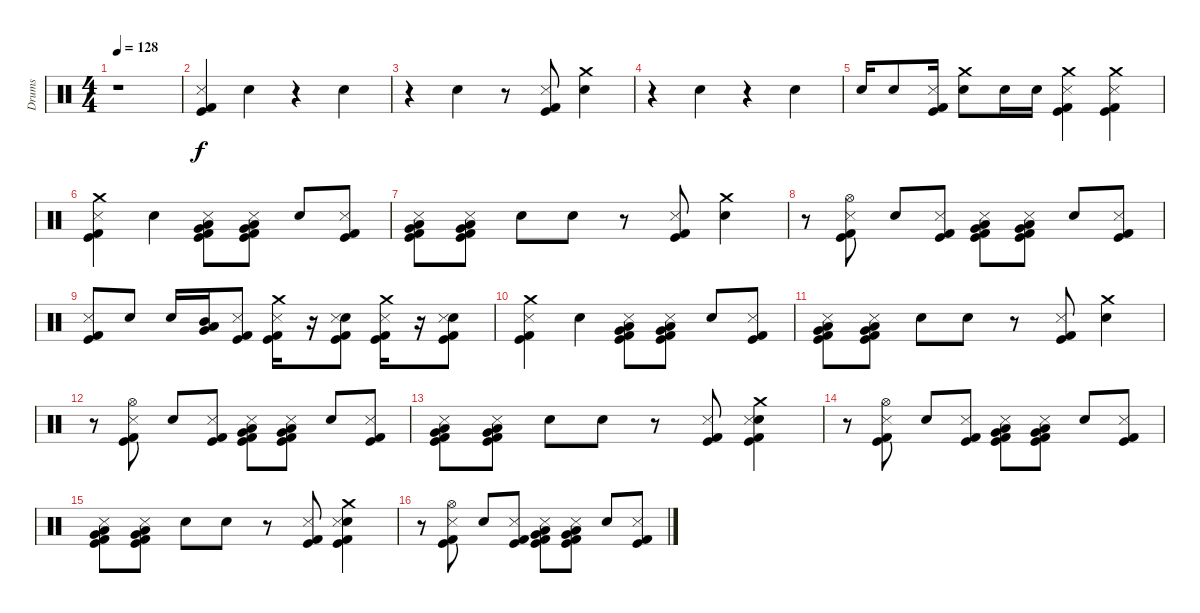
\track ("Drums" "Drums") {instrument percussion}
\staff {score}
\articulation defaults
\ts (4 4)
\tempo 128
\clef neutral
\ks c
r.1{dy f} |
("Metronome (hit)" "Kick (hit)" "Kick (hit) 2").4 "Snare (hit) 2".4 r.4 "Snare (hit) 2".4 |
r.4 "Snare (hit) 2".4 r.8 ("Metronome (hit)" "Kick (hit)" "Kick (hit) 2").8 ("Snare (hit) 2" "Crash medium (hit)").4 |
r.4 "Snare (hit) 2".4 r.4 "Snare (hit) 2".4 |
"Snare (hit) 2".16 "Snare (hit) 2".8 ("Metronome (hit)" "Kick (hit)" "Kick (hit) 2").16 ("Snare (hit) 2" "Crash medium (hit)").8 "Snare (hit) 2".16 "Snare (hit) 2".16 ("Crash medium (hit)" "Metronome (hit)" "Kick (hit)" "Kick (hit) 2").4 ("Crash medium (hit)" "Metronome (hit)" "Kick (hit)" "Kick (hit) 2").4 |
("Crash medium (hit)" "Metronome (hit)" "Kick (hit)" "Kick (hit) 2").4 "Snare (hit) 2".4 ("Very Low Tom (hit)" "Low Tom (hit)" "Metronome (hit)" "Kick (hit)" "Kick (hit) 2").8 ("Very Low Tom (hit)" "Low Tom (hit)" "Metronome (hit)" "Kick (hit)" "Kick (hit) 2").8 "Snare (hit) 2".8 ("Metronome (hit)" "Kick (hit)" "Kick (hit) 2").8 |
("Very Low Tom (hit)" "Low Tom (hit)" "Metronome (hit)" "Kick (hit)" "Kick (hit) 2").8 ("Very Low Tom (hit)" "Low Tom (hit)" "Metronome (hit)" "Kick (hit)" "Kick (hit) 2").8 "Snare (hit) 2".8 "Snare (hit) 2".8 r.8 ("Metronome (hit)" "Kick (hit)" "Kick (hit) 2").8 ("Snare (hit) 2" "Crash medium (hit)").4 |
r.8 ("Hi-Hat (open)" "Metronome (hit)" "Kick (hit)" "Kick (hit) 2").8 "Snare (hit) 2".8 ("Metronome (hit)" "Kick (hit)" "Kick (hit) 2").8 ("Very Low Tom (hit)" "Low Tom (hit)" "Metronome (hit)" "Kick (hit)" "Kick (hit) 2").8 ("Very Low Tom (hit)" "Low Tom (hit)" "Metronome (hit)" "Kick (hit)" "Kick (hit) 2").8 "Snare (hit) 2".8 ("Metronome (hit)" "Kick (hit)" "Kick (hit) 2").8 |
("Metronome (hit)" "Kick (hit)" "Kick (hit) 2").8 "Snare (hit) 2".8 "Snare (hit) 2".16 ("Very Low Tom (hit)" "Low Tom (hit)" "Mid Tom (hit)").16 ("Metronome (hit)" "Kick (hit)" "Kick (hit) 2").8 ("Metronome (hit)" "Kick (hit)" "Kick (hit) 2" "Crash medium (hit)").16 r.16 ("Snare (hit)" "Metronome (hit)" "Kick (hit)" "Kick (hit) 2").8 ("Metronome (hit)" "Kick (hit)" "Kick (hit) 2" "Crash medium (hit)").16 r.16 ("Snare (hit)" "Metronome (hit)" "Kick (hit)" "Kick (hit) 2").8 |
("Crash medium (hit)" "Metronome (hit)" "Kick (hit)" "Kick (hit) 2").4 "Snare (hit) 2".4 ("Very Low Tom (hit)" "Low Tom (hit)" "Metronome (hit)" "Kick (hit)" "Kick (hit) 2").8 ("Very Low Tom (hit)" "Low Tom (hit)" "Metronome (hit)" "Kick (hit)" "Kick (hit) 2").8 "Snare (hit) 2".8 ("Metronome (hit)" "Kick (hit)" "Kick (hit) 2").8 |
("Very Low Tom (hit)" "Low Tom (hit)" "Metronome (hit)" "Kick (hit)" "Kick (hit) 2").8 ("Very Low Tom (hit)" "Low Tom (hit)" "Metronome (hit)" "Kick (hit)" "Kick (hit) 2").8 "Snare (hit) 2".8 "Snare (hit) 2".8 r.8 ("Metronome (hit)" "Kick (hit)" "Kick (hit) 2").8 ("Snare (hit) 2" "Crash medium (hit)").4 |
r.8 ("Hi-Hat (open)" "Metronome (hit)" "Kick (hit)" "Kick (hit) 2").8 "Snare (hit) 2".8 ("Metronome (hit)" "Kick (hit)" "Kick (hit) 2").8 ("Very Low Tom (hit)" "Low Tom (hit)" "Metronome (hit)" "Kick (hit)" "Kick (hit) 2").8 ("Very Low Tom (hit)" "Low Tom (hit)" "Metronome (hit)" "Kick (hit)" "Kick (hit) 2").8 "Snare (hit) 2".8 ("Metronome (hit)" "Kick (hit)" "Kick (hit) 2").8 |
("Very Low Tom (hit)" "Low Tom (hit)" "Metronome (hit)" "Kick (hit)" "Kick (hit) 2").8 ("Very Low Tom (hit)" "Low Tom (hit)" "Metronome (hit)" "Kick (hit)" "Kick (hit) 2").8 "Snare (hit) 2".8 "Snare (hit) 2".8 r.8 ("Metronome (hit)" "Kick (hit)" "Kick (hit) 2").8 ("Snare (hit) 2" "Crash medium (hit)" "Metronome (hit)" "Kick (hit)" "Kick (hit) 2").4 |
r.8 ("Hi-Hat (open)" "Metronome (hit)" "Kick (hit)" "Kick (hit) 2").8 "Snare (hit) 2".8 ("Metronome (hit)" "Kick (hit)" "Kick (hit) 2").8 ("Very Low Tom (hit)" "Low Tom (hit)" "Metronome (hit)" "Kick (hit)" "Kick (hit) 2").8 ("Very Low Tom (hit)" "Low Tom (hit)" "Metronome (hit)" "Kick (hit)" "Kick (hit) 2").8 "Snare (hit) 2".8 ("Metronome (hit)" "Kick (hit)" "Kick (hit) 2").8 |
("Very Low Tom (hit)" "Low Tom (hit)" "Metronome (hit)" "Kick (hit)" "Kick (hit) 2").8 ("Very Low Tom (hit)" "Low Tom (hit)" "Metronome (hit)" "Kick (hit)" "Kick (hit) 2").8 "Snare (hit) 2".8 "Snare (hit) 2".8 r.8 ("Metronome (hit)" "Kick (hit)" "Kick (hit) 2").8 ("Snare (hit) 2" "Crash medium (hit)" "Metronome (hit)" "Kick (hit)" "Kick (hit) 2").4 |
r.8 ("Hi-Hat (open)" "Metronome (hit)" "Kick (hit)" "Kick (hit) 2").8 "Snare (hit) 2".8 ("Metronome (hit)" "Kick (hit)" "Kick (hit) 2").8 ("Very Low Tom (hit)" "Low Tom (hit)" "Metronome (hit)" "Kick (hit)" "Kick (hit) 2").8 ("Very Low Tom (hit)" "Low Tom (hit)" "Metronome (hit)" "Kick (hit)" "Kick (hit) 2").8 "Snare (hit) 2".8 ("Metronome (hit)" "Kick (hit)" "Kick (hit) 2").8
